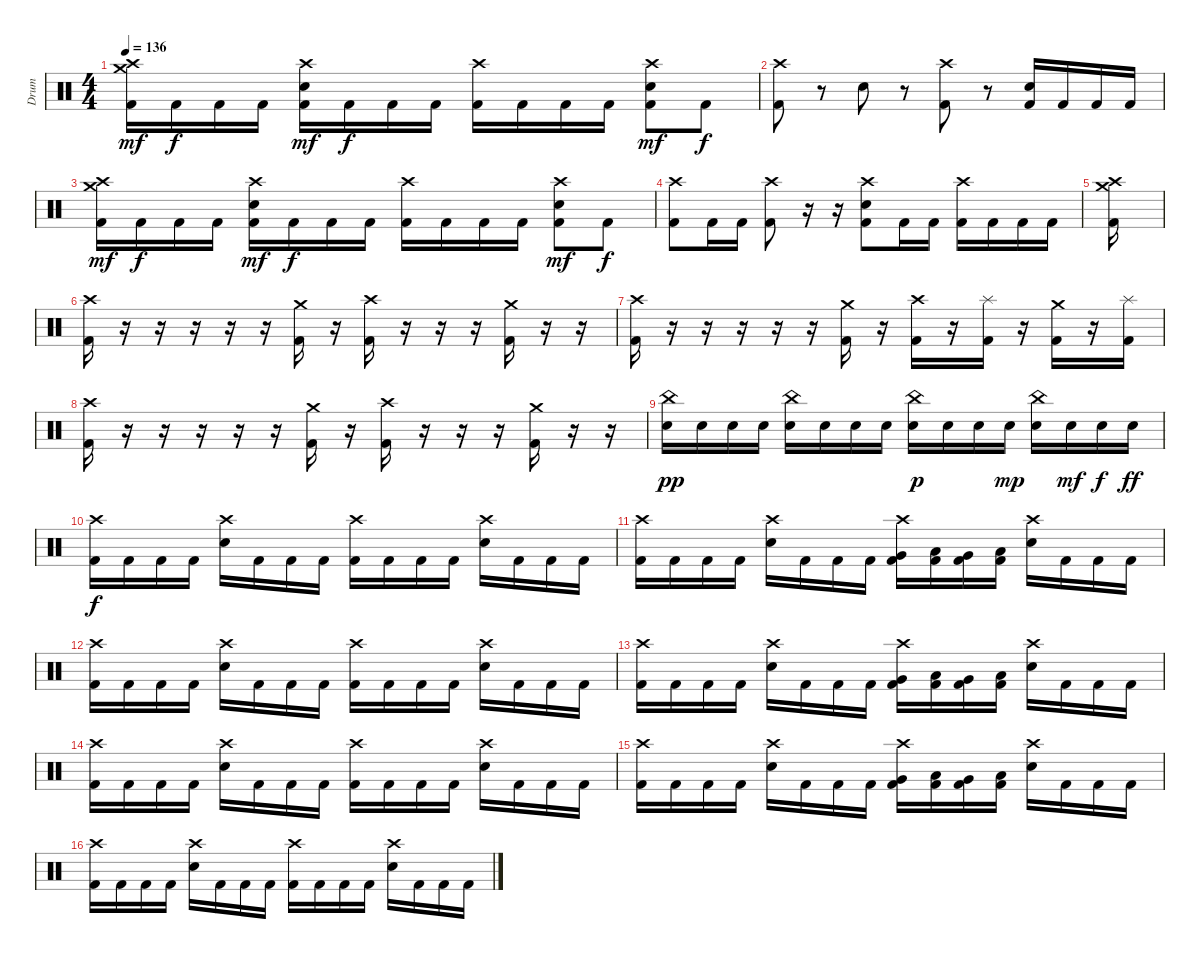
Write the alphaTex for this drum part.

\track ("Drum" "Drum") {instrument percussion}
\staff {score}
\articulation defaults
\ts (4 4)
\tempo 136
\clef neutral
\ks c
("Crash medium (hit)" "Crash high (hit)" "Kick (hit) 2").16{dy mf} "Kick (hit) 2".16{dy f} "Kick (hit) 2".16 "Kick (hit) 2".16 ("Crash high (hit)" "Electric Snare (hit)" "Kick (hit) 2").16{dy mf} "Kick (hit) 2".16{dy f} "Kick (hit) 2".16 "Kick (hit) 2".16 ("Crash high (hit)" "Kick (hit) 2").16 "Kick (hit) 2".16 "Kick (hit) 2".16 "Kick (hit) 2".16 ("Crash high (hit)" "Electric Snare (hit)" "Kick (hit) 2").8{dy mf} "Kick (hit) 2".8{dy f} |
("Crash high (hit)" "Kick (hit) 2").8 r.8 "Electric Snare (hit)".8 r.8 ("Crash high (hit)" "Kick (hit) 2").8 r.8 ("Electric Snare (hit)" "Kick (hit) 2").16 "Kick (hit) 2".16 "Kick (hit) 2".16 "Kick (hit) 2".16 |
("Crash medium (hit)" "Crash high (hit)" "Kick (hit) 2").16{dy mf} "Kick (hit) 2".16{dy f} "Kick (hit) 2".16 "Kick (hit) 2".16 ("Crash high (hit)" "Electric Snare (hit)" "Kick (hit) 2").16{dy mf} "Kick (hit) 2".16{dy f} "Kick (hit) 2".16 "Kick (hit) 2".16 ("Crash high (hit)" "Kick (hit) 2").16 "Kick (hit) 2".16 "Kick (hit) 2".16 "Kick (hit) 2".16 ("Crash high (hit)" "Electric Snare (hit)" "Kick (hit) 2").8{dy mf} "Kick (hit) 2".8{dy f} |
("Crash high (hit)" "Kick (hit) 2").8 "Kick (hit) 2".16 "Kick (hit) 2".16 ("Crash high (hit)" "Kick (hit) 2").8 r.16 r.16 ("Crash high (hit)" "Electric Snare (hit)" "Kick (hit) 2").8 "Kick (hit) 2".16 "Kick (hit) 2".16 ("Crash high (hit)" "Kick (hit) 2").16 "Kick (hit) 2".16 "Kick (hit) 2".16 "Kick (hit) 2".16 |
("Crash medium (hit)" "Crash high (hit)" "Kick (hit) 2").16 |
("Crash high (hit)" "Kick (hit) 2").16 r.16 r.16 r.16 r.16 r.16 ("Crash medium (hit)" "Kick (hit) 2").16 r.16 ("Crash high (hit)" "Kick (hit) 2").16 r.16 r.16 r.16 ("Crash medium (hit)" "Kick (hit) 2").16 r.16 r.16 |
("Crash high (hit)" "Kick (hit) 2").16 r.16 r.16 r.16 r.16 r.16 ("Crash medium (hit)" "Kick (hit) 2").16 r.16 ("Crash high (hit)" "Kick (hit) 2").16 r.16 ("Splash (hit)" "Kick (hit) 2").16 r.16 ("Crash medium (hit)" "Kick (hit) 2").16 r.16 ("Splash (hit)" "Kick (hit) 2").16 |
("Crash high (hit)" "Kick (hit) 2").16 r.16 r.16 r.16 r.16 r.16 ("Crash medium (hit)" "Kick (hit) 2").16 r.16 ("Crash high (hit)" "Kick (hit) 2").16 r.16 r.16 r.16 ("Crash medium (hit)" "Kick (hit) 2").16 r.16 r.16 |
("China (hit)" "Electric Snare (hit)").16{dy pp} "Electric Snare (hit)".16 "Electric Snare (hit)".16 "Electric Snare (hit)".16 ("China (hit)" "Electric Snare (hit)").16 "Electric Snare (hit)".16 "Electric Snare (hit)".16 "Electric Snare (hit)".16 ("China (hit)" "Electric Snare (hit)").16{dy p} "Electric Snare (hit)".16 "Electric Snare (hit)".16 "Electric Snare (hit)".16{dy mp} ("China (hit)" "Electric Snare (hit)").16 "Electric Snare (hit)".16{dy mf} "Electric Snare (hit)".16{dy f} "Electric Snare (hit)".16{dy ff} |
("Crash high (hit)" "Kick (hit) 2").16{dy f} "Kick (hit) 2".16 "Kick (hit) 2".16 "Kick (hit) 2".16 ("Crash high (hit)" "Electric Snare (hit)").16 "Kick (hit) 2".16 "Kick (hit) 2".16 "Kick (hit) 2".16 ("Crash high (hit)" "Kick (hit) 2").16 "Kick (hit) 2".16 "Kick (hit) 2".16 "Kick (hit) 2".16 ("Crash high (hit)" "Electric Snare (hit)").16 "Kick (hit) 2".16 "Kick (hit) 2".16 "Kick (hit) 2".16 |
("Crash high (hit)" "Kick (hit) 2").16 "Kick (hit) 2".16 "Kick (hit) 2".16 "Kick (hit) 2".16 ("Crash high (hit)" "Electric Snare (hit)").16 "Kick (hit) 2".16 "Kick (hit) 2".16 "Kick (hit) 2".16 ("Crash high (hit)" "Very Low Tom (hit)" "Kick (hit) 2").16 ("Low Floor Tom (hit)" "Kick (hit) 2").16 ("Very Low Tom (hit)" "Kick (hit) 2").16 ("Low Floor Tom (hit)" "Kick (hit) 2").16 ("Crash high (hit)" "Electric Snare (hit)").16 "Kick (hit) 2".16 "Kick (hit) 2".16 "Kick (hit) 2".16 |
("Crash high (hit)" "Kick (hit) 2").16 "Kick (hit) 2".16 "Kick (hit) 2".16 "Kick (hit) 2".16 ("Crash high (hit)" "Electric Snare (hit)").16 "Kick (hit) 2".16 "Kick (hit) 2".16 "Kick (hit) 2".16 ("Crash high (hit)" "Kick (hit) 2").16 "Kick (hit) 2".16 "Kick (hit) 2".16 "Kick (hit) 2".16 ("Crash high (hit)" "Electric Snare (hit)").16 "Kick (hit) 2".16 "Kick (hit) 2".16 "Kick (hit) 2".16 |
("Crash high (hit)" "Kick (hit) 2").16 "Kick (hit) 2".16 "Kick (hit) 2".16 "Kick (hit) 2".16 ("Crash high (hit)" "Electric Snare (hit)").16 "Kick (hit) 2".16 "Kick (hit) 2".16 "Kick (hit) 2".16 ("Crash high (hit)" "Very Low Tom (hit)" "Kick (hit) 2").16 ("Low Floor Tom (hit)" "Kick (hit) 2").16 ("Very Low Tom (hit)" "Kick (hit) 2").16 ("Low Floor Tom (hit)" "Kick (hit) 2").16 ("Crash high (hit)" "Electric Snare (hit)").16 "Kick (hit) 2".16 "Kick (hit) 2".16 "Kick (hit) 2".16 |
("Crash high (hit)" "Kick (hit) 2").16 "Kick (hit) 2".16 "Kick (hit) 2".16 "Kick (hit) 2".16 ("Crash high (hit)" "Electric Snare (hit)").16 "Kick (hit) 2".16 "Kick (hit) 2".16 "Kick (hit) 2".16 ("Crash high (hit)" "Kick (hit) 2").16 "Kick (hit) 2".16 "Kick (hit) 2".16 "Kick (hit) 2".16 ("Crash high (hit)" "Electric Snare (hit)").16 "Kick (hit) 2".16 "Kick (hit) 2".16 "Kick (hit) 2".16 |
("Crash high (hit)" "Kick (hit) 2").16 "Kick (hit) 2".16 "Kick (hit) 2".16 "Kick (hit) 2".16 ("Crash high (hit)" "Electric Snare (hit)").16 "Kick (hit) 2".16 "Kick (hit) 2".16 "Kick (hit) 2".16 ("Crash high (hit)" "Very Low Tom (hit)" "Kick (hit) 2").16 ("Low Floor Tom (hit)" "Kick (hit) 2").16 ("Very Low Tom (hit)" "Kick (hit) 2").16 ("Low Floor Tom (hit)" "Kick (hit) 2").16 ("Crash high (hit)" "Electric Snare (hit)").16 "Kick (hit) 2".16 "Kick (hit) 2".16 "Kick (hit) 2".16 |
("Crash high (hit)" "Kick (hit) 2").16 "Kick (hit) 2".16 "Kick (hit) 2".16 "Kick (hit) 2".16 ("Crash high (hit)" "Electric Snare (hit)").16 "Kick (hit) 2".16 "Kick (hit) 2".16 "Kick (hit) 2".16 ("Crash high (hit)" "Kick (hit) 2").16 "Kick (hit) 2".16 "Kick (hit) 2".16 "Kick (hit) 2".16 ("Crash high (hit)" "Electric Snare (hit)").16 "Kick (hit) 2".16 "Kick (hit) 2".16 "Kick (hit) 2".16
